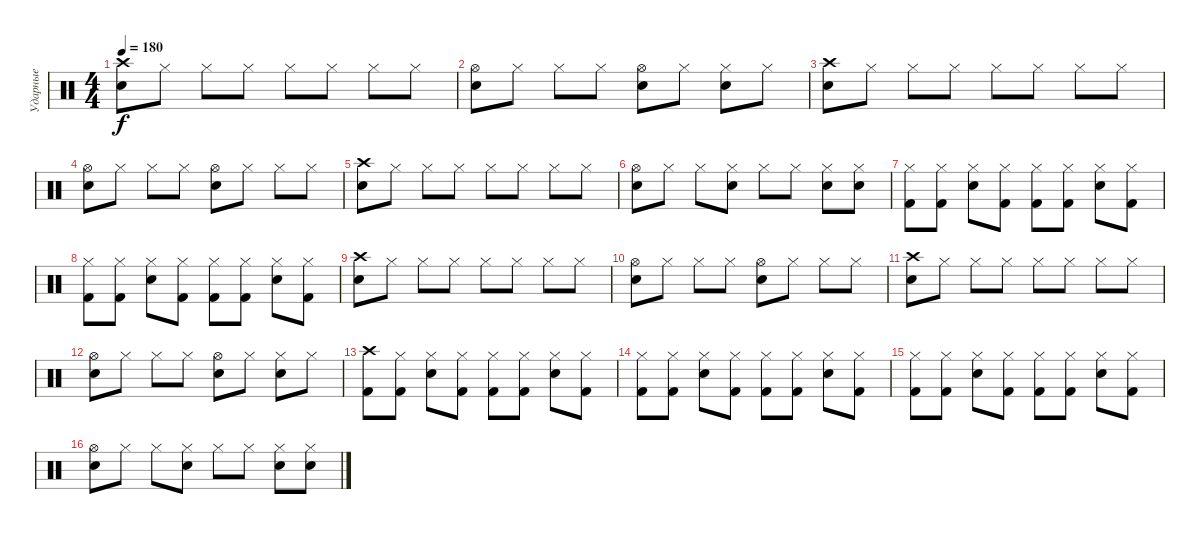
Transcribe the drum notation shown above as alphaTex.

\track ("Ударные" "Ударные") {instrument percussion}
\staff {score}
\articulation defaults
\ts (4 4)
\tempo 180
\clef neutral
\ks c
("Electric Snare (hit)" "Crash high (hit)").8{dy f} "Hi-Hat (closed)".8 "Hi-Hat (closed)".8 "Hi-Hat (closed)".8 "Hi-Hat (closed)".8 "Hi-Hat (closed)".8 "Hi-Hat (closed)".8 "Hi-Hat (closed)".8 |
("Electric Snare (hit)" "Hi-Hat (open)").8 "Hi-Hat (closed)".8 "Hi-Hat (closed)".8 "Hi-Hat (closed)".8 ("Snare (hit) 2" "Hi-Hat (open)").8 "Hi-Hat (closed)".8 ("Snare (hit) 2" "Hi-Hat (closed)").8 "Hi-Hat (closed)".8 |
("Electric Snare (hit)" "Crash high (hit)").8 "Hi-Hat (closed)".8 "Hi-Hat (closed)".8 "Hi-Hat (closed)".8 "Hi-Hat (closed)".8 "Hi-Hat (closed)".8 "Hi-Hat (closed)".8 "Hi-Hat (closed)".8 |
("Electric Snare (hit)" "Hi-Hat (open)").8 "Hi-Hat (closed)".8 "Hi-Hat (closed)".8 "Hi-Hat (closed)".8 ("Snare (hit) 2" "Hi-Hat (open)").8 "Hi-Hat (closed)".8 "Hi-Hat (closed)".8 "Hi-Hat (closed)".8 |
("Electric Snare (hit)" "Crash high (hit)").8 "Hi-Hat (closed)".8 "Hi-Hat (closed)".8 "Hi-Hat (closed)".8 "Hi-Hat (closed)".8 "Hi-Hat (closed)".8 "Hi-Hat (closed)".8 "Hi-Hat (closed)".8 |
("Hi-Hat (open)" "Snare (hit) 2").8 "Hi-Hat (closed)".8 "Hi-Hat (closed)".8 ("Snare (hit) 2" "Hi-Hat (closed)").8 "Hi-Hat (closed)".8 "Hi-Hat (closed)".8 ("Hi-Hat (closed)" "Snare (hit) 2").8 ("Hi-Hat (closed)" "Snare (hit) 2").8 |
("Hi-Hat (closed)" "Kick (hit) 2").8 ("Hi-Hat (closed)" "Kick (hit) 2").8 ("Hi-Hat (closed)" "Snare (hit) 2").8 ("Kick (hit) 2" "Hi-Hat (closed)").8 ("Hi-Hat (closed)" "Kick (hit) 2").8 ("Hi-Hat (closed)" "Kick (hit) 2").8 ("Hi-Hat (closed)" "Snare (hit) 2").8 ("Kick (hit) 2" "Hi-Hat (closed)").8 |
("Hi-Hat (closed)" "Kick (hit) 2").8 ("Hi-Hat (closed)" "Kick (hit) 2").8 ("Hi-Hat (closed)" "Snare (hit) 2").8 ("Kick (hit) 2" "Hi-Hat (closed)").8 ("Hi-Hat (closed)" "Kick (hit) 2").8 ("Hi-Hat (closed)" "Kick (hit) 2").8 ("Hi-Hat (closed)" "Snare (hit) 2").8 ("Kick (hit) 2" "Hi-Hat (closed)").8 |
("Electric Snare (hit)" "Crash high (hit)").8 "Hi-Hat (closed)".8 "Hi-Hat (closed)".8 "Hi-Hat (closed)".8 "Hi-Hat (closed)".8 "Hi-Hat (closed)".8 "Hi-Hat (closed)".8 "Hi-Hat (closed)".8 |
("Electric Snare (hit)" "Hi-Hat (open)").8 "Hi-Hat (closed)".8 "Hi-Hat (closed)".8 "Hi-Hat (closed)".8 ("Snare (hit) 2" "Hi-Hat (open)").8 "Hi-Hat (closed)".8 "Hi-Hat (closed)".8 "Hi-Hat (closed)".8 |
("Electric Snare (hit)" "Crash high (hit)").8 "Hi-Hat (closed)".8 "Hi-Hat (closed)".8 "Hi-Hat (closed)".8 "Hi-Hat (closed)".8 "Hi-Hat (closed)".8 "Hi-Hat (closed)".8 "Hi-Hat (closed)".8 |
("Electric Snare (hit)" "Hi-Hat (open)").8 "Hi-Hat (closed)".8 "Hi-Hat (closed)".8 "Hi-Hat (closed)".8 ("Snare (hit) 2" "Hi-Hat (open)").8 "Hi-Hat (closed)".8 ("Snare (hit) 2" "Hi-Hat (closed)").8 "Hi-Hat (closed)".8 |
("Crash high (hit)" "Kick (hit) 2").8 ("Hi-Hat (closed)" "Kick (hit) 2").8 ("Hi-Hat (closed)" "Snare (hit) 2").8 ("Kick (hit) 2" "Hi-Hat (closed)").8 ("Hi-Hat (closed)" "Kick (hit) 2").8 ("Kick (hit) 2" "Hi-Hat (closed)").8 ("Electric Snare (hit)" "Hi-Hat (closed)").8 ("Kick (hit) 2" "Hi-Hat (closed)").8 |
("Hi-Hat (closed)" "Kick (hit) 2").8 ("Hi-Hat (closed)" "Kick (hit) 2").8 ("Hi-Hat (closed)" "Snare (hit) 2").8 ("Kick (hit) 2" "Hi-Hat (closed)").8 ("Hi-Hat (closed)" "Kick (hit) 2").8 ("Hi-Hat (closed)" "Kick (hit) 2").8 ("Hi-Hat (closed)" "Snare (hit) 2").8 ("Kick (hit) 2" "Hi-Hat (closed)").8 |
("Hi-Hat (closed)" "Kick (hit) 2").8 ("Hi-Hat (closed)" "Kick (hit) 2").8 ("Hi-Hat (closed)" "Snare (hit) 2").8 ("Kick (hit) 2" "Hi-Hat (closed)").8 ("Hi-Hat (closed)" "Kick (hit) 2").8 ("Hi-Hat (closed)" "Kick (hit) 2").8 ("Hi-Hat (closed)" "Snare (hit) 2").8 ("Kick (hit) 2" "Hi-Hat (closed)").8 |
("Hi-Hat (open)" "Snare (hit) 2").8 "Hi-Hat (closed)".8 "Hi-Hat (closed)".8 ("Snare (hit) 2" "Hi-Hat (closed)").8 "Hi-Hat (closed)".8 "Hi-Hat (closed)".8 ("Hi-Hat (closed)" "Snare (hit) 2").8 ("Hi-Hat (closed)" "Snare (hit) 2").8
